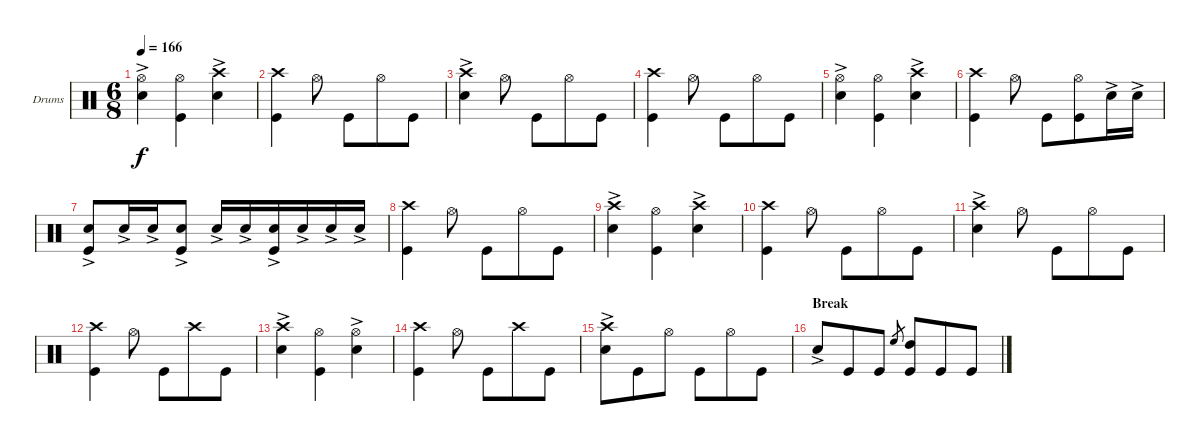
\bracketExtendMode groupsimilarinstruments
\firstSystemTrackNameOrientation horizontal
\otherSystemsTrackNameOrientation horizontal
\track ("Drumkit" "Drums") {instrument percussion}
\staff {score}
\articulation defaults
\ts (6 8)
\tempo 166
\clef neutral
\ks c
("Hi-Hat (open)" "Snare (hit) 2"{ac}).4{dy f} ("Hi-Hat (open)" "Kick (hit)").4 ("Crash high (hit)" "Snare (hit) 2"{ac}).4 |
("Crash high (hit)" "Kick (hit)").4 "Hi-Hat (open)".8 "Kick (hit)".8 "Hi-Hat (open)".8 "Kick (hit)".8 |
("Crash high (hit)" "Snare (hit) 2"{ac}).4 "Hi-Hat (open)".8 "Kick (hit)".8 "Hi-Hat (open)".8 "Kick (hit)".8 |
("Crash high (hit)" "Kick (hit)").4 "Hi-Hat (open)".8 "Kick (hit)".8 "Hi-Hat (open)".8 "Kick (hit)".8 |
("Hi-Hat (open)" "Snare (hit) 2"{ac}).4 ("Hi-Hat (open)" "Kick (hit)").4 ("Crash high (hit)" "Snare (hit) 2"{ac}).4 |
("Crash high (hit)" "Kick (hit)").4 "Hi-Hat (open)".8 "Kick (hit)".8 ("Hi-Hat (open)" "Kick (hit)").8 "Snare (hit) 2"{ac}.16 "Snare (hit) 2"{ac}.16 |
("Snare (hit) 2"{ac} "Kick (hit)").8 "Snare (hit) 2"{ac}.16 "Snare (hit) 2"{ac}.16 ("Snare (hit) 2"{ac} "Kick (hit)").8 "Snare (hit) 2"{ac}.16 "Snare (hit) 2"{ac}.16 ("Snare (hit) 2"{ac} "Kick (hit)").16 "Snare (hit) 2"{ac}.16 "Snare (hit) 2"{ac}.16 "Snare (hit) 2"{ac}.16 |
("Crash high (hit)" "Kick (hit)").4 "Hi-Hat (open)".8 "Kick (hit)".8 "Hi-Hat (open)".8 "Kick (hit)".8 |
("Crash high (hit)" "Snare (hit) 2"{ac}).4 ("Hi-Hat (open)" "Kick (hit)").4 ("Crash high (hit)" "Snare (hit) 2"{ac}).4 |
("Crash high (hit)" "Kick (hit)").4 "Hi-Hat (open)".8 "Kick (hit)".8 "Hi-Hat (open)".8 "Kick (hit)".8 |
("Crash high (hit)" "Snare (hit) 2"{ac}).4 "Hi-Hat (open)".8 "Kick (hit)".8 "Hi-Hat (open)".8 "Kick (hit)".8 |
("Crash high (hit)" "Kick (hit)").4 "Hi-Hat (open)".8 "Kick (hit)".8 "Crash high (hit)".8 "Kick (hit)".8 |
("Crash high (hit)" "Snare (hit) 2"{ac}).4 ("Hi-Hat (open)" "Kick (hit)").4 ("Hi-Hat (open)" "Snare (hit) 2"{ac}).4 |
("Crash high (hit)" "Kick (hit)").4 "Hi-Hat (open)".8 "Kick (hit)".8 "Crash high (hit)".8 "Kick (hit)".8 |
\scale
0.214599 ("Crash high (hit)" "Snare (hit) 2"{ac}).8 "Kick (hit)".8 "Hi-Hat (open)".8 "Kick (hit)".8 "Hi-Hat (open)".8 "Kick (hit)".8 |
\section ("" "Break")
\scale
0.19562 "Snare (hit) 2"{ac}.8 "Kick (hit)".8 "Kick (hit)".8 "High Floor Tom (hit)".8{gr} ("High Tom (hit)" "Kick (hit)").8 "Kick (hit)".8 "Kick (hit)".8
